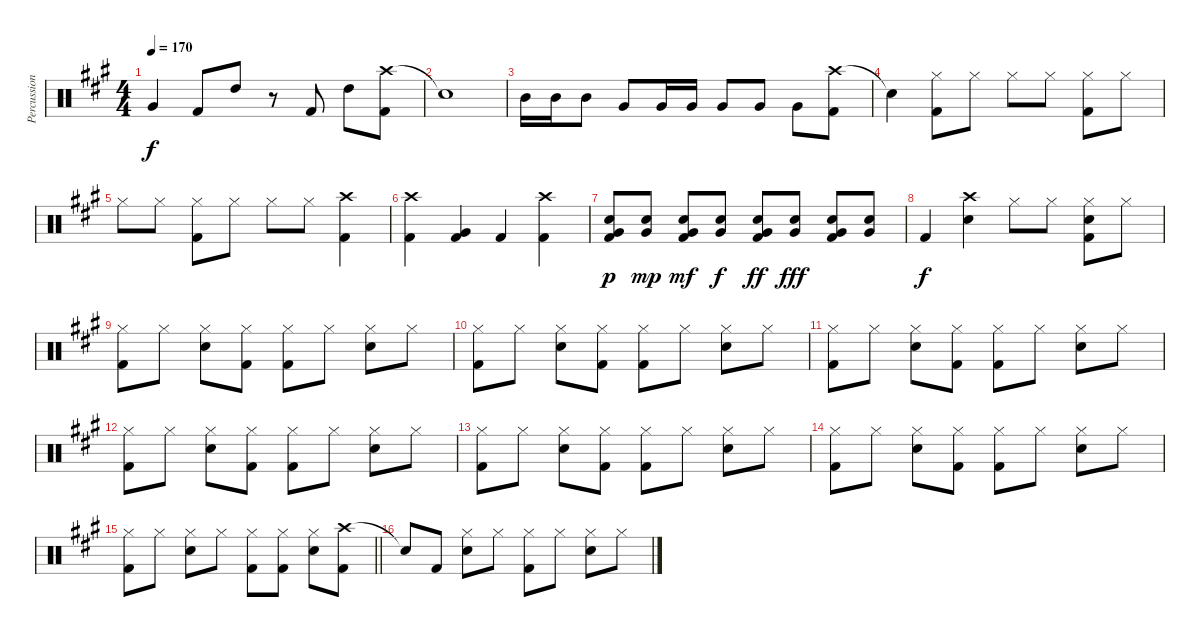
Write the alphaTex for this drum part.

\track ("Percussion" "Percussion") {instrument percussion}
\staff {score}
\articulation defaults
\ts (4 4)
\tempo 170
\clef neutral
\ks a "Very Low Tom (hit)".4{dy f} "Kick (hit) 2".8 "High Tom (hit)".8
r.8 "Kick (hit) 2".8 "High Tom (hit)".8 ("Crash high (hit)" "Kick (hit) 2").8 |
"Snare (hit)"{t}.1 |
"Mid Tom (hit)".16 "Mid Tom (hit)".16 "Mid Tom (hit)".8 "Very Low Tom (hit)".8 "Very Low Tom (hit)".16 "Very Low Tom (hit)".16 "Very Low Tom (hit)".8 "Very Low Tom (hit)".8 "Very Low Tom (hit)".8 ("Crash high (hit)" "Kick (hit) 2").8 |
"Snare (hit)"{t}.4 ("Hi-Hat (closed)" "Kick (hit) 2").8 "Hi-Hat (closed)".8 "Hi-Hat (closed)".8 "Hi-Hat (closed)".8 ("Hi-Hat (closed)" "Kick (hit) 2").8 "Hi-Hat (closed)".8 |
"Hi-Hat (closed)".8 "Hi-Hat (closed)".8 ("Hi-Hat (closed)" "Kick (hit) 2").8 "Hi-Hat (closed)".8 "Hi-Hat (closed)".8 "Hi-Hat (closed)".8 ("Crash high (hit)" "Kick (hit) 2").4 |
("Crash high (hit)" "Kick (hit) 2").4 ("Very Low Tom (hit)" "Kick (hit) 2").4 "Kick (hit) 2".4 ("Crash high (hit)" "Kick (hit) 2").4 |
("Snare (hit) 2" "Very Low Tom (hit)" "Kick (hit) 2").8{dy p} ("Snare (hit) 2" "Very Low Tom (hit)").8{dy mp} ("Snare (hit) 2" "Very Low Tom (hit)" "Kick (hit) 2").8{dy mf} ("Snare (hit) 2" "Very Low Tom (hit)").8{dy f} ("Snare (hit) 2" "Very Low Tom (hit)" "Kick (hit) 2").8{dy ff} ("Snare (hit) 2" "Very Low Tom (hit)").8{dy fff} ("Snare (hit) 2" "Very Low Tom (hit)" "Kick (hit) 2").8 ("Snare (hit) 2" "Very Low Tom (hit)").8 |
"Kick (hit) 2".4{dy f} ("Crash high (hit)" "Snare (hit) 2").4 "Hi-Hat (closed)".8 "Hi-Hat (closed)".8 ("Hi-Hat (closed)" "Snare (hit) 2" "Kick (hit) 2").8 "Hi-Hat (closed)".8 |
("Hi-Hat (closed)" "Kick (hit) 2").8 "Hi-Hat (closed)".8 ("Hi-Hat (closed)" "Snare (hit) 2").8 ("Hi-Hat (closed)" "Kick (hit) 2").8 ("Hi-Hat (closed)" "Kick (hit) 2").8 "Hi-Hat (closed)".8 ("Hi-Hat (closed)" "Snare (hit) 2").8 "Hi-Hat (closed)".8 |
("Hi-Hat (closed)" "Kick (hit) 2").8 "Hi-Hat (closed)".8 ("Hi-Hat (closed)" "Snare (hit) 2").8 ("Hi-Hat (closed)" "Kick (hit) 2").8 ("Hi-Hat (closed)" "Kick (hit) 2").8 "Hi-Hat (closed)".8 ("Hi-Hat (closed)" "Snare (hit) 2").8 "Hi-Hat (closed)".8 |
("Hi-Hat (closed)" "Kick (hit) 2").8 "Hi-Hat (closed)".8 ("Hi-Hat (closed)" "Snare (hit) 2").8 ("Hi-Hat (closed)" "Kick (hit) 2").8 ("Hi-Hat (closed)" "Kick (hit) 2").8 "Hi-Hat (closed)".8 ("Hi-Hat (closed)" "Snare (hit) 2").8 "Hi-Hat (closed)".8 |
("Hi-Hat (closed)" "Kick (hit) 2").8 "Hi-Hat (closed)".8 ("Hi-Hat (closed)" "Snare (hit) 2").8 ("Hi-Hat (closed)" "Kick (hit) 2").8 ("Hi-Hat (closed)" "Kick (hit) 2").8 "Hi-Hat (closed)".8 ("Hi-Hat (closed)" "Snare (hit) 2").8 "Hi-Hat (closed)".8 |
("Hi-Hat (closed)" "Kick (hit) 2").8 "Hi-Hat (closed)".8 ("Hi-Hat (closed)" "Snare (hit) 2").8 ("Hi-Hat (closed)" "Kick (hit) 2").8 ("Hi-Hat (closed)" "Kick (hit) 2").8 "Hi-Hat (closed)".8 ("Hi-Hat (closed)" "Snare (hit) 2").8 "Hi-Hat (closed)".8 |
("Hi-Hat (closed)" "Kick (hit) 2").8 "Hi-Hat (closed)".8 ("Hi-Hat (closed)" "Snare (hit) 2").8 ("Hi-Hat (closed)" "Kick (hit) 2").8 ("Hi-Hat (closed)" "Kick (hit) 2").8 "Hi-Hat (closed)".8 ("Hi-Hat (closed)" "Snare (hit) 2").8 "Hi-Hat (closed)".8 |
\barLineRight lightlight
("Hi-Hat (closed)" "Kick (hit) 2").8 "Hi-Hat (closed)".8 ("Hi-Hat (closed)" "Snare (hit) 2").8 "Hi-Hat (closed)".8 ("Hi-Hat (closed)" "Kick (hit) 2").8 ("Hi-Hat (closed)" "Kick (hit) 2").8 ("Hi-Hat (closed)" "Snare (hit) 2").8 ("Crash high (hit)" "Kick (hit) 2").8 |
"Snare (hit)"{t}.8 "Kick (hit) 2".8 ("Hi-Hat (closed)" "Snare (hit) 2").8 "Hi-Hat (closed)".8 ("Hi-Hat (closed)" "Kick (hit) 2").8 "Hi-Hat (closed)".8 ("Hi-Hat (closed)" "Snare (hit) 2").8 "Hi-Hat (closed)".8
